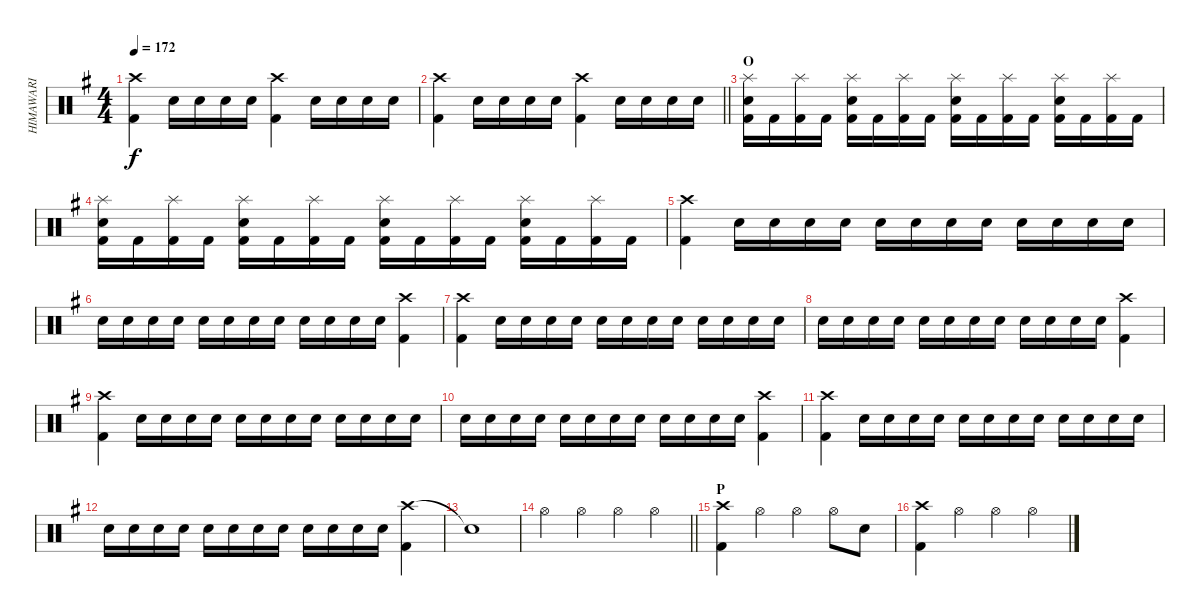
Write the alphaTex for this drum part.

\track ("HIMAWARI" "HIMAWARI") {instrument percussion}
\staff {score}
\articulation defaults
\ts (4 4)
\tempo 172
\clef neutral
\ks g
("Crash high (hit)" "Kick (hit) 2").4{dy f} "Snare (hit) 2".16 "Snare (hit) 2".16 "Snare (hit) 2".16 "Snare (hit) 2".16 ("Crash high (hit)" "Kick (hit) 2").4 "Snare (hit) 2".16 "Snare (hit) 2".16 "Snare (hit) 2".16 "Snare (hit) 2".16 |
\barLineRight lightlight
("Crash high (hit)" "Kick (hit) 2").4 "Snare (hit) 2".16 "Snare (hit) 2".16 "Snare (hit) 2".16 "Snare (hit) 2".16 ("Crash high (hit)" "Kick (hit) 2").4 "Snare (hit) 2".16 "Snare (hit) 2".16 "Snare (hit) 2".16 "Snare (hit) 2".16 |
\section ("" "O")
("Splash (hit)" "Snare (hit) 2" "Kick (hit) 2").16 "Kick (hit) 2".16 ("Splash (hit)" "Kick (hit) 2").16 "Kick (hit) 2".16 ("Splash (hit)" "Snare (hit) 2" "Kick (hit) 2").16 "Kick (hit) 2".16 ("Splash (hit)" "Kick (hit) 2").16 "Kick (hit) 2".16 ("Splash (hit)" "Snare (hit) 2" "Kick (hit) 2").16 "Kick (hit) 2".16 ("Splash (hit)" "Kick (hit) 2").16 "Kick (hit) 2".16 ("Splash (hit)" "Snare (hit) 2" "Kick (hit) 2").16 "Kick (hit) 2".16 ("Splash (hit)" "Kick (hit) 2").16 "Kick (hit) 2".16 |
("Splash (hit)" "Snare (hit) 2" "Kick (hit) 2").16 "Kick (hit) 2".16 ("Splash (hit)" "Kick (hit) 2").16 "Kick (hit) 2".16 ("Splash (hit)" "Snare (hit) 2" "Kick (hit) 2").16 "Kick (hit) 2".16 ("Splash (hit)" "Kick (hit) 2").16 "Kick (hit) 2".16 ("Splash (hit)" "Snare (hit) 2" "Kick (hit) 2").16 "Kick (hit) 2".16 ("Splash (hit)" "Kick (hit) 2").16 "Kick (hit) 2".16 ("Splash (hit)" "Snare (hit) 2" "Kick (hit) 2").16 "Kick (hit) 2".16 ("Splash (hit)" "Kick (hit) 2").16 "Kick (hit) 2".16 |
("Crash high (hit)" "Kick (hit) 2").4 "Snare (hit) 2".16 "Snare (hit) 2".16 "Snare (hit) 2".16 "Snare (hit) 2".16 "Snare (hit) 2".16 "Snare (hit) 2".16 "Snare (hit) 2".16 "Snare (hit) 2".16 "Snare (hit) 2".16 "Snare (hit) 2".16 "Snare (hit) 2".16 "Snare (hit) 2".16 |
"Snare (hit) 2".16 "Snare (hit) 2".16 "Snare (hit) 2".16 "Snare (hit) 2".16 "Snare (hit) 2".16 "Snare (hit) 2".16 "Snare (hit) 2".16 "Snare (hit) 2".16 "Snare (hit) 2".16 "Snare (hit) 2".16 "Snare (hit) 2".16 "Snare (hit) 2".16 ("Crash high (hit)" "Kick (hit) 2").4 |
("Crash high (hit)" "Kick (hit) 2").4 "Snare (hit) 2".16 "Snare (hit) 2".16 "Snare (hit) 2".16 "Snare (hit) 2".16 "Snare (hit) 2".16 "Snare (hit) 2".16 "Snare (hit) 2".16 "Snare (hit) 2".16 "Snare (hit) 2".16 "Snare (hit) 2".16 "Snare (hit) 2".16 "Snare (hit) 2".16 |
"Snare (hit) 2".16 "Snare (hit) 2".16 "Snare (hit) 2".16 "Snare (hit) 2".16 "Snare (hit) 2".16 "Snare (hit) 2".16 "Snare (hit) 2".16 "Snare (hit) 2".16 "Snare (hit) 2".16 "Snare (hit) 2".16 "Snare (hit) 2".16 "Snare (hit) 2".16 ("Crash high (hit)" "Kick (hit) 2").4 |
("Crash high (hit)" "Kick (hit) 2").4 "Snare (hit) 2".16 "Snare (hit) 2".16 "Snare (hit) 2".16 "Snare (hit) 2".16 "Snare (hit) 2".16 "Snare (hit) 2".16 "Snare (hit) 2".16 "Snare (hit) 2".16 "Snare (hit) 2".16 "Snare (hit) 2".16 "Snare (hit) 2".16 "Snare (hit) 2".16 |
"Snare (hit) 2".16 "Snare (hit) 2".16 "Snare (hit) 2".16 "Snare (hit) 2".16 "Snare (hit) 2".16 "Snare (hit) 2".16 "Snare (hit) 2".16 "Snare (hit) 2".16 "Snare (hit) 2".16 "Snare (hit) 2".16 "Snare (hit) 2".16 "Snare (hit) 2".16 ("Crash high (hit)" "Kick (hit) 2").4 |
("Crash high (hit)" "Kick (hit) 2").4 "Snare (hit) 2".16 "Snare (hit) 2".16 "Snare (hit) 2".16 "Snare (hit) 2".16 "Snare (hit) 2".16 "Snare (hit) 2".16 "Snare (hit) 2".16 "Snare (hit) 2".16 "Snare (hit) 2".16 "Snare (hit) 2".16 "Snare (hit) 2".16 "Snare (hit) 2".16 |
"Snare (hit) 2".16 "Snare (hit) 2".16 "Snare (hit) 2".16 "Snare (hit) 2".16 "Snare (hit) 2".16 "Snare (hit) 2".16 "Snare (hit) 2".16 "Snare (hit) 2".16 "Snare (hit) 2".16 "Snare (hit) 2".16 "Snare (hit) 2".16 "Snare (hit) 2".16 ("Crash high (hit)" "Kick (hit) 2").4 |
"Snare (hit)"{t}.1 |
\barLineRight lightlight "Hi-Hat (open)".4 "Hi-Hat (open)".4 "Hi-Hat (open)".4 "Hi-Hat (open)".4
|
\section ("" "P")
("Crash high (hit)" "Kick (hit) 2").4 "Hi-Hat (open)".4 "Hi-Hat (open)".4 "Hi-Hat (open)".8 "Snare (hit) 2".8 |
("Crash high (hit)" "Kick (hit) 2").4 "Hi-Hat (open)".4 "Hi-Hat (open)".4 "Hi-Hat (open)".4
